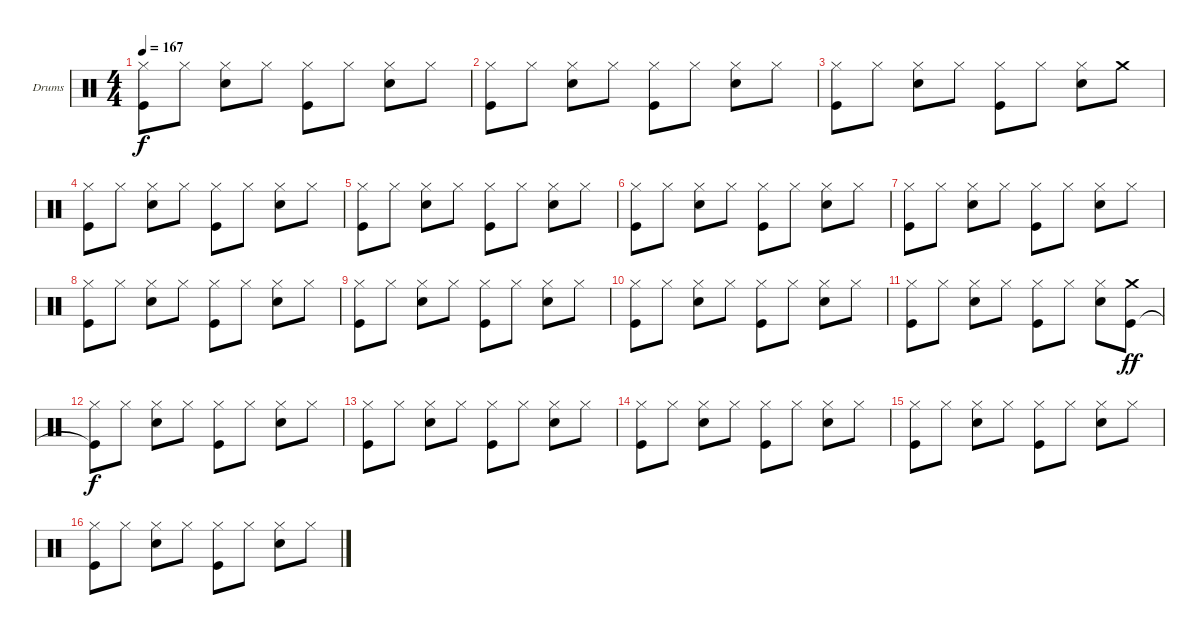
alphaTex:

\bracketExtendMode groupsimilarinstruments
\firstSystemTrackNameOrientation horizontal
\otherSystemsTrackNameOrientation horizontal
\track ("Drumkit" "Drums") {instrument percussion}
\staff {score}
\articulation defaults
\ts (4 4)
\tempo 167
\clef neutral
\ks c
("Hi-Hat (closed)" "Kick (hit)").8{dy f} "Hi-Hat (closed)".8 ("Hi-Hat (closed)" "Snare (hit) 2").8 "Hi-Hat (closed)".8 ("Hi-Hat (closed)" "Kick (hit)").8 "Hi-Hat (closed)".8 ("Hi-Hat (closed)" "Snare (hit) 2").8 "Hi-Hat (closed)".8 |
("Hi-Hat (closed)" "Kick (hit)").8 "Hi-Hat (closed)".8 ("Hi-Hat (closed)" "Snare (hit) 2").8 "Hi-Hat (closed)".8 ("Hi-Hat (closed)" "Kick (hit)").8 "Hi-Hat (closed)".8 ("Hi-Hat (closed)" "Snare (hit) 2").8 "Hi-Hat (closed)".8 |
("Hi-Hat (closed)" "Kick (hit)").8 "Hi-Hat (closed)".8 ("Hi-Hat (closed)" "Snare (hit) 2").8 "Hi-Hat (closed)".8 ("Hi-Hat (closed)" "Kick (hit)").8 "Hi-Hat (closed)".8 ("Hi-Hat (closed)" "Snare (hit) 2").8 "Crash medium (hit)".8 |
("Hi-Hat (closed)" "Kick (hit)").8 "Hi-Hat (closed)".8 ("Hi-Hat (closed)" "Snare (hit) 2").8 "Hi-Hat (closed)".8 ("Hi-Hat (closed)" "Kick (hit)").8 "Hi-Hat (closed)".8 ("Hi-Hat (closed)" "Snare (hit) 2").8 "Hi-Hat (closed)".8 |
("Hi-Hat (closed)" "Kick (hit)").8 "Hi-Hat (closed)".8 ("Hi-Hat (closed)" "Snare (hit) 2").8 "Hi-Hat (closed)".8 ("Hi-Hat (closed)" "Kick (hit)").8 "Hi-Hat (closed)".8 ("Hi-Hat (closed)" "Snare (hit) 2").8 "Hi-Hat (closed)".8 |
("Hi-Hat (closed)" "Kick (hit)").8 "Hi-Hat (closed)".8 ("Hi-Hat (closed)" "Snare (hit) 2").8 "Hi-Hat (closed)".8 ("Hi-Hat (closed)" "Kick (hit)").8 "Hi-Hat (closed)".8 ("Hi-Hat (closed)" "Snare (hit) 2").8 "Hi-Hat (closed)".8 |
("Hi-Hat (closed)" "Kick (hit)").8 "Hi-Hat (closed)".8 ("Hi-Hat (closed)" "Snare (hit) 2").8 "Hi-Hat (closed)".8 ("Hi-Hat (closed)" "Kick (hit)").8 "Hi-Hat (closed)".8 ("Hi-Hat (closed)" "Snare (hit) 2").8 "Hi-Hat (closed)".8 |
("Hi-Hat (closed)" "Kick (hit)").8 "Hi-Hat (closed)".8 ("Hi-Hat (closed)" "Snare (hit) 2").8 "Hi-Hat (closed)".8 ("Hi-Hat (closed)" "Kick (hit)").8 "Hi-Hat (closed)".8 ("Hi-Hat (closed)" "Snare (hit) 2").8 "Hi-Hat (closed)".8 |
("Hi-Hat (closed)" "Kick (hit)").8 "Hi-Hat (closed)".8 ("Hi-Hat (closed)" "Snare (hit) 2").8 "Hi-Hat (closed)".8 ("Hi-Hat (closed)" "Kick (hit)").8 "Hi-Hat (closed)".8 ("Hi-Hat (closed)" "Snare (hit) 2").8 "Hi-Hat (closed)".8 |
("Hi-Hat (closed)" "Kick (hit)").8 "Hi-Hat (closed)".8 ("Hi-Hat (closed)" "Snare (hit) 2").8 "Hi-Hat (closed)".8 ("Hi-Hat (closed)" "Kick (hit)").8 "Hi-Hat (closed)".8 ("Hi-Hat (closed)" "Snare (hit) 2").8 "Hi-Hat (closed)".8 |
("Hi-Hat (closed)" "Kick (hit)").8 "Hi-Hat (closed)".8 ("Hi-Hat (closed)" "Snare (hit) 2").8 "Hi-Hat (closed)".8 ("Hi-Hat (closed)" "Kick (hit)").8 "Hi-Hat (closed)".8 ("Hi-Hat (closed)" "Snare (hit) 2").8 ("Crash medium (hit)" "Kick (hit)").8{dy ff} |
("Hi-Hat (closed)" "Kick (hit)"{t}).8{dy f} "Hi-Hat (closed)".8 ("Hi-Hat (closed)" "Snare (hit) 2").8 "Hi-Hat (closed)".8 ("Hi-Hat (closed)" "Kick (hit)").8 "Hi-Hat (closed)".8 ("Hi-Hat (closed)" "Snare (hit) 2").8 "Hi-Hat (closed)".8 |
("Hi-Hat (closed)" "Kick (hit)").8 "Hi-Hat (closed)".8 ("Hi-Hat (closed)" "Snare (hit) 2").8 "Hi-Hat (closed)".8 ("Hi-Hat (closed)" "Kick (hit)").8 "Hi-Hat (closed)".8 ("Hi-Hat (closed)" "Snare (hit) 2").8 "Hi-Hat (closed)".8 |
("Hi-Hat (closed)" "Kick (hit)").8 "Hi-Hat (closed)".8 ("Hi-Hat (closed)" "Snare (hit) 2").8 "Hi-Hat (closed)".8 ("Hi-Hat (closed)" "Kick (hit)").8 "Hi-Hat (closed)".8 ("Hi-Hat (closed)" "Snare (hit) 2").8 "Hi-Hat (closed)".8 |
("Hi-Hat (closed)" "Kick (hit)").8 "Hi-Hat (closed)".8 ("Hi-Hat (closed)" "Snare (hit) 2").8 "Hi-Hat (closed)".8 ("Hi-Hat (closed)" "Kick (hit)").8 "Hi-Hat (closed)".8 ("Hi-Hat (closed)" "Snare (hit) 2").8 "Hi-Hat (closed)".8 |
("Hi-Hat (closed)" "Kick (hit)").8 "Hi-Hat (closed)".8 ("Hi-Hat (closed)" "Snare (hit) 2").8 "Hi-Hat (closed)".8 ("Hi-Hat (closed)" "Kick (hit)").8 "Hi-Hat (closed)".8 ("Hi-Hat (closed)" "Snare (hit) 2").8 "Hi-Hat (closed)".8
